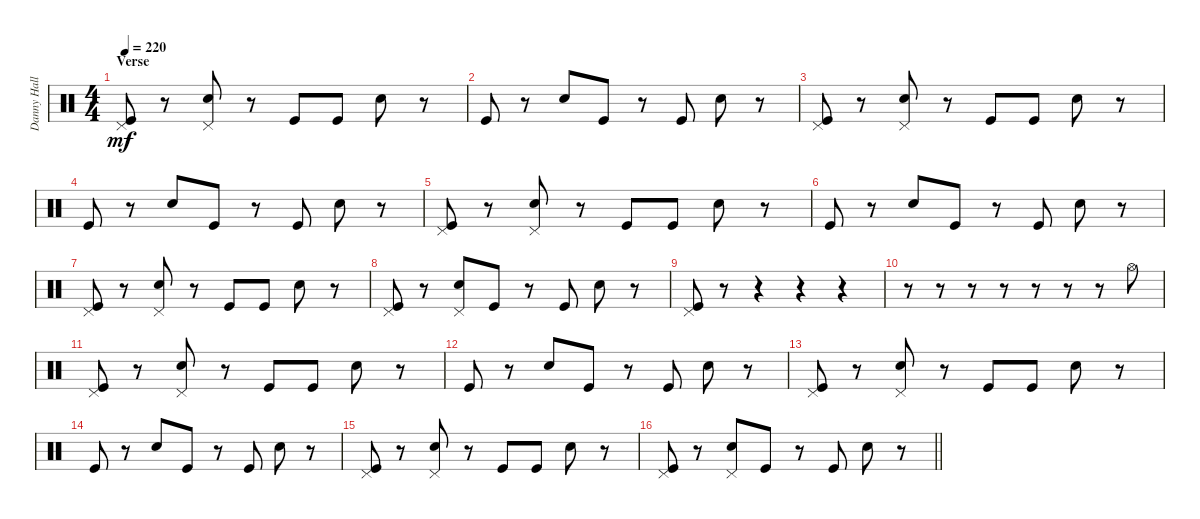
\track ("Danny Hall" "Danny Hall") {instrument percussion}
\staff {score}
\articulation defaults
\ts (4 4)
\section ("" "Verse")
\tempo 220
\clef neutral
\ks c
("Pedal Hi-Hat (hit)" "Kick (hit)").8{dy mf} r.8 ("Pedal Hi-Hat (hit)" "Snare (hit) 2").8 r.8 "Kick (hit)".8 "Kick (hit)".8 "Snare (hit) 2".8 r.8 |
"Kick (hit)".8 r.8 "Snare (hit) 2".8 "Kick (hit)".8 r.8 "Kick (hit)".8 "Snare (hit) 2".8 r.8 |
("Pedal Hi-Hat (hit)" "Kick (hit)").8 r.8 ("Pedal Hi-Hat (hit)" "Snare (hit) 2").8 r.8 "Kick (hit)".8 "Kick (hit)".8 "Snare (hit) 2".8 r.8 |
"Kick (hit)".8 r.8 "Snare (hit) 2".8 "Kick (hit)".8 r.8 "Kick (hit)".8 "Snare (hit) 2".8 r.8 |
("Pedal Hi-Hat (hit)" "Kick (hit)").8 r.8 ("Pedal Hi-Hat (hit)" "Snare (hit) 2").8 r.8 "Kick (hit)".8 "Kick (hit)".8 "Snare (hit) 2".8 r.8 |
"Kick (hit)".8 r.8 "Snare (hit) 2".8 "Kick (hit)".8 r.8 "Kick (hit)".8 "Snare (hit) 2".8 r.8 |
("Pedal Hi-Hat (hit)" "Kick (hit)").8 r.8 ("Pedal Hi-Hat (hit)" "Snare (hit) 2").8 r.8 "Kick (hit)".8 "Kick (hit)".8 "Snare (hit) 2".8 r.8 |
("Pedal Hi-Hat (hit)" "Kick (hit)").8 r.8 ("Pedal Hi-Hat (hit)" "Snare (hit) 2").8 "Kick (hit)".8 r.8 "Kick (hit)".8 "Snare (hit) 2".8 r.8 |
("Pedal Hi-Hat (hit)" "Kick (hit)").8 r.8 r.4 r.4 r.4 |
r.8 r.8 r.8 r.8 r.8 r.8 r.8 "Hi-Hat (open)".8 |
("Pedal Hi-Hat (hit)" "Kick (hit)").8 r.8 ("Pedal Hi-Hat (hit)" "Snare (hit) 2").8 r.8 "Kick (hit)".8 "Kick (hit)".8 "Snare (hit) 2".8 r.8 |
"Kick (hit)".8 r.8 "Snare (hit) 2".8 "Kick (hit)".8 r.8 "Kick (hit)".8 "Snare (hit) 2".8 r.8 |
("Pedal Hi-Hat (hit)" "Kick (hit)").8 r.8 ("Pedal Hi-Hat (hit)" "Snare (hit) 2").8 r.8 "Kick (hit)".8 "Kick (hit)".8 "Snare (hit) 2".8 r.8 |
"Kick (hit)".8 r.8 "Snare (hit) 2".8 "Kick (hit)".8 r.8 "Kick (hit)".8 "Snare (hit) 2".8 r.8 |
("Pedal Hi-Hat (hit)" "Kick (hit)").8 r.8 ("Pedal Hi-Hat (hit)" "Snare (hit) 2").8 r.8 "Kick (hit)".8 "Kick (hit)".8 "Snare (hit) 2".8 r.8 |
\barLineRight lightlight
("Pedal Hi-Hat (hit)" "Kick (hit)").8 r.8 ("Pedal Hi-Hat (hit)" "Snare (hit) 2").8 "Kick (hit)".8 r.8 "Kick (hit)".8 "Snare (hit) 2".8 r.8
